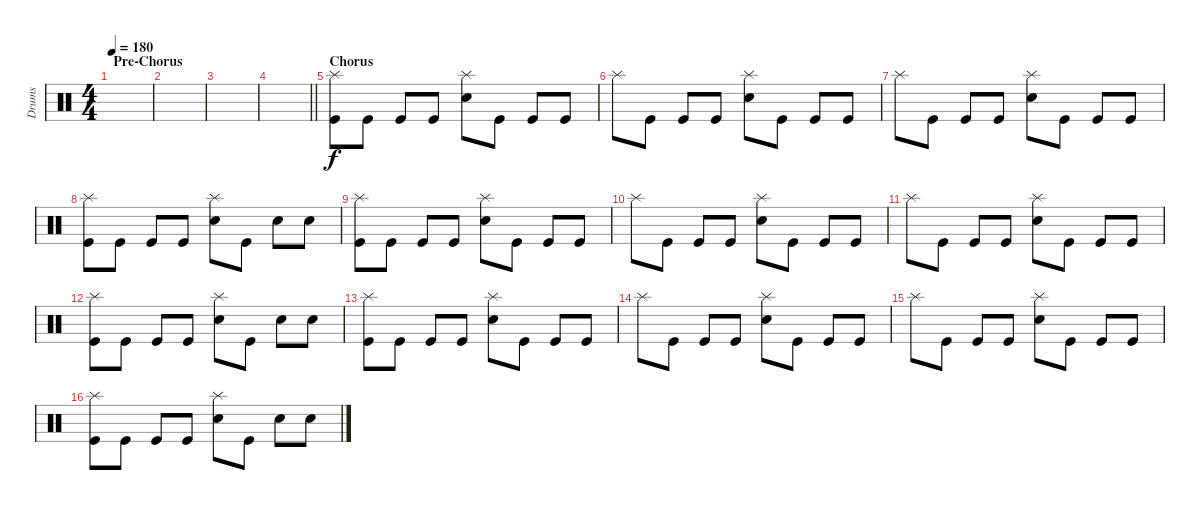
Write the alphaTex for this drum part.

\track ("Drums" "Drums") {instrument percussion}
\staff {score}
\articulation defaults
\ts (4 4)
\section ("" "Pre-Chorus")
\tempo 180
\clef neutral
\ks c
|
|
|
\barLineRight lightlight
|
\section ("" "Chorus")
("Splash (hit)" "Kick (hit)").8 "Kick (hit)".8 "Kick (hit)".8 "Kick (hit)".8 ("Splash (hit)" "Snare (hit) 2").8 "Kick (hit)".8 "Kick (hit)".8 "Kick (hit)".8 |
"Splash (hit)".8 "Kick (hit)".8 "Kick (hit)".8 "Kick (hit)".8 ("Splash (hit)" "Snare (hit) 2").8 "Kick (hit)".8 "Kick (hit)".8 "Kick (hit)".8 |
"Splash (hit)".8 "Kick (hit)".8 "Kick (hit)".8 "Kick (hit)".8 ("Splash (hit)" "Snare (hit) 2").8 "Kick (hit)".8 "Kick (hit)".8 "Kick (hit)".8 |
("Splash (hit)" "Kick (hit)").8 "Kick (hit)".8 "Kick (hit)".8 "Kick (hit)".8 ("Splash (hit)" "Snare (hit) 2").8 "Kick (hit)".8 "Snare (hit) 2".8 "Snare (hit) 2".8 |
("Splash (hit)" "Kick (hit)").8 "Kick (hit)".8 "Kick (hit)".8 "Kick (hit)".8 ("Splash (hit)" "Snare (hit) 2").8 "Kick (hit)".8 "Kick (hit)".8 "Kick (hit)".8 |
"Splash (hit)".8 "Kick (hit)".8 "Kick (hit)".8 "Kick (hit)".8 ("Splash (hit)" "Snare (hit) 2").8 "Kick (hit)".8 "Kick (hit)".8 "Kick (hit)".8 |
"Splash (hit)".8 "Kick (hit)".8 "Kick (hit)".8 "Kick (hit)".8 ("Splash (hit)" "Snare (hit) 2").8 "Kick (hit)".8 "Kick (hit)".8 "Kick (hit)".8 |
("Splash (hit)" "Kick (hit)").8 "Kick (hit)".8 "Kick (hit)".8 "Kick (hit)".8 ("Splash (hit)" "Snare (hit) 2").8 "Kick (hit)".8 "Snare (hit) 2".8 "Snare (hit) 2".8 |
("Splash (hit)" "Kick (hit)").8 "Kick (hit)".8 "Kick (hit)".8 "Kick (hit)".8 ("Splash (hit)" "Snare (hit) 2").8 "Kick (hit)".8 "Kick (hit)".8 "Kick (hit)".8 |
"Splash (hit)".8 "Kick (hit)".8 "Kick (hit)".8 "Kick (hit)".8 ("Splash (hit)" "Snare (hit) 2").8 "Kick (hit)".8 "Kick (hit)".8 "Kick (hit)".8 |
"Splash (hit)".8 "Kick (hit)".8 "Kick (hit)".8 "Kick (hit)".8 ("Splash (hit)" "Snare (hit) 2").8 "Kick (hit)".8 "Kick (hit)".8 "Kick (hit)".8 |
("Splash (hit)" "Kick (hit)").8 "Kick (hit)".8 "Kick (hit)".8 "Kick (hit)".8 ("Splash (hit)" "Snare (hit) 2").8 "Kick (hit)".8 "Snare (hit) 2".8 "Snare (hit) 2".8
